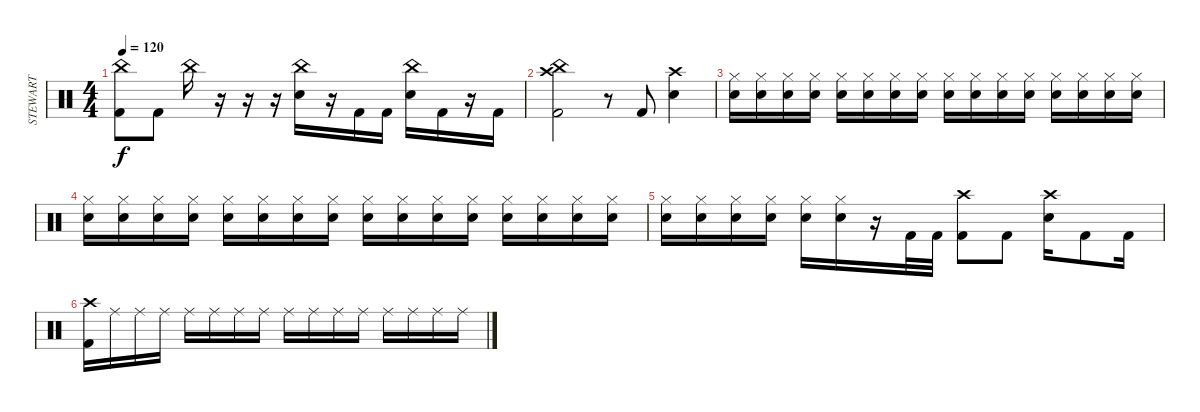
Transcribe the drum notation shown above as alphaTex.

\track ("STEWART" "STEWART") {instrument percussion}
\staff {score}
\articulation defaults
\ts (4 4)
\tempo 120
\clef neutral
\ks c
("China (hit)" "Kick (hit) 2").8{dy f} "Kick (hit) 2".8 "China (hit)".16 r.16 r.16 r.16 ("China (hit)" "Snare (hit) 2").16 r.16 "Kick (hit) 2".16 "Kick (hit) 2".16 ("China (hit)" "Snare (hit) 2").16 "Kick (hit) 2".16 r.16 "Kick (hit) 2".16 |
("China (hit)" "Crash high (hit)" "Kick (hit) 2").2 r.8 "Kick (hit) 2".8 ("Crash high (hit)" "Snare (hit) 2").4 |
("Hi-Hat (closed)" "Snare (hit) 2").16 ("Hi-Hat (closed)" "Snare (hit) 2").16 ("Hi-Hat (closed)" "Snare (hit) 2").16 ("Hi-Hat (closed)" "Snare (hit) 2").16 ("Hi-Hat (closed)" "Snare (hit) 2").16 ("Hi-Hat (closed)" "Snare (hit) 2").16 ("Hi-Hat (closed)" "Snare (hit) 2").16 ("Hi-Hat (closed)" "Snare (hit) 2").16 ("Hi-Hat (closed)" "Snare (hit) 2").16 ("Hi-Hat (closed)" "Snare (hit) 2").16 ("Hi-Hat (closed)" "Snare (hit) 2").16 ("Hi-Hat (closed)" "Snare (hit) 2").16 ("Hi-Hat (closed)" "Snare (hit) 2").16 ("Hi-Hat (closed)" "Snare (hit) 2").16 ("Hi-Hat (closed)" "Snare (hit) 2").16 ("Hi-Hat (closed)" "Snare (hit) 2").16 |
("Hi-Hat (closed)" "Snare (hit) 2").16 ("Hi-Hat (closed)" "Snare (hit) 2").16 ("Hi-Hat (closed)" "Snare (hit) 2").16 ("Hi-Hat (closed)" "Snare (hit) 2").16 ("Hi-Hat (closed)" "Snare (hit) 2").16 ("Hi-Hat (closed)" "Snare (hit) 2").16 ("Hi-Hat (closed)" "Snare (hit) 2").16 ("Hi-Hat (closed)" "Snare (hit) 2").16 ("Hi-Hat (closed)" "Snare (hit) 2").16 ("Hi-Hat (closed)" "Snare (hit) 2").16 ("Hi-Hat (closed)" "Snare (hit) 2").16 ("Hi-Hat (closed)" "Snare (hit) 2").16 ("Hi-Hat (closed)" "Snare (hit) 2").16 ("Hi-Hat (closed)" "Snare (hit) 2").16 ("Hi-Hat (closed)" "Snare (hit) 2").16 ("Hi-Hat (closed)" "Snare (hit) 2").16 |
("Hi-Hat (closed)" "Snare (hit) 2").16 ("Hi-Hat (closed)" "Snare (hit) 2").16 ("Hi-Hat (closed)" "Snare (hit) 2").16 ("Hi-Hat (closed)" "Snare (hit) 2").16 ("Hi-Hat (closed)" "Snare (hit) 2").16 ("Hi-Hat (closed)" "Snare (hit) 2").16 r.16 "Kick (hit) 2".32 "Kick (hit) 2".32 ("Crash high (hit)" "Kick (hit) 2").8 "Kick (hit) 2".8 ("Crash high (hit)" "Snare (hit) 2").16 "Kick (hit) 2".8 "Kick (hit) 2".16 |
("Crash high (hit)" "Kick (hit) 2").16 "Ride (middle)".16 "Ride (middle)".16 "Ride (middle)".16 "Ride (middle)".16 "Ride (middle)".16 "Ride (middle)".16 "Ride (middle)".16 "Ride (middle)".16 "Ride (middle)".16 "Ride (middle)".16 "Ride (middle)".16 "Ride (middle)".16 "Ride (middle)".16 "Ride (middle)".16 "Ride (middle)".16
